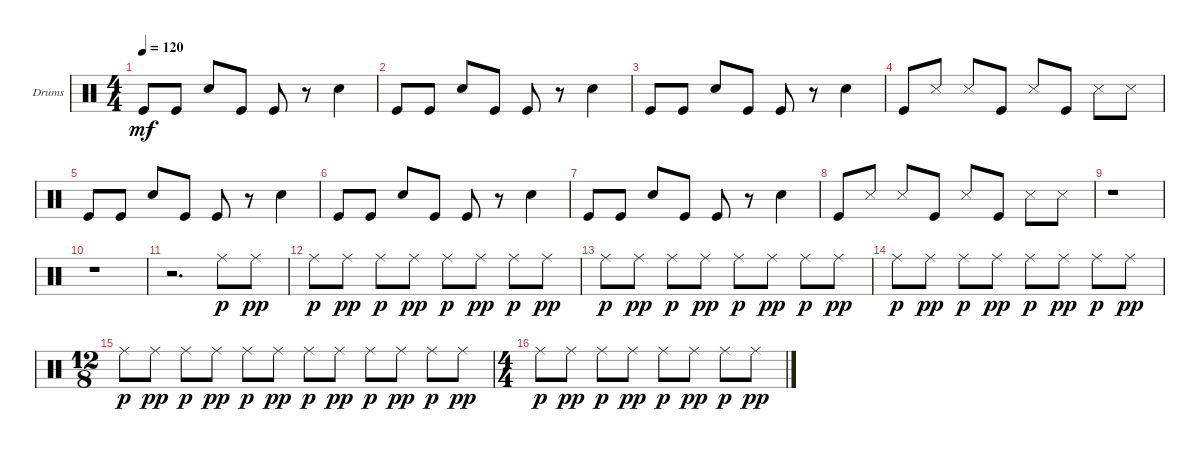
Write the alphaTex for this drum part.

\defaultSystemsLayout 4
\bracketExtendMode groupsimilarinstruments
\firstSystemTrackNameOrientation horizontal
\otherSystemsTrackNameOrientation horizontal
\track ("Drumkit" "Drums") {instrument percussion}
\staff {score}
\articulation defaults
\ts (4 4)
\tempo 120
\clef neutral
\ks c "Kick (hit)".8{dy mf} "Kick (hit)".8 "Snare (hit) 2".8 "Kick (hit)".8 "Kick (hit)".8
r.8 "Snare (hit) 2".4 |
"Kick (hit)".8 "Kick (hit)".8 "Snare (hit) 2".8 "Kick (hit)".8 "Kick (hit)".8 r.8 "Snare (hit) 2".4 |
"Kick (hit)".8 "Kick (hit)".8 "Snare (hit) 2".8 "Kick (hit)".8 "Kick (hit)".8 r.8 "Snare (hit) 2".4 |
"Kick (hit)".8 "Snare (side stick) 3".8 "Snare (side stick) 3".8 "Kick (hit)".8 "Snare (side stick) 3".8 "Kick (hit)".8 "Snare (side stick) 3".8 "Snare (side stick) 3".8 |
"Kick (hit)".8 "Kick (hit)".8 "Snare (hit) 2".8 "Kick (hit)".8 "Kick (hit)".8 r.8 "Snare (hit) 2".4 |
"Kick (hit)".8 "Kick (hit)".8 "Snare (hit) 2".8 "Kick (hit)".8 "Kick (hit)".8 r.8 "Snare (hit) 2".4 |
"Kick (hit)".8 "Kick (hit)".8 "Snare (hit) 2".8 "Kick (hit)".8 "Kick (hit)".8 r.8 "Snare (hit) 2".4 |
"Kick (hit)".8 "Snare (side stick) 3".8 "Snare (side stick) 3".8 "Kick (hit)".8 "Snare (side stick) 3".8 "Kick (hit)".8 "Snare (side stick) 3".8 "Snare (side stick) 3".8 |
r.1 |
r.1 |
r.2{d} "Ride (middle)".8{dy p} "Ride (middle)".8{dy pp} |
"Ride (middle)".8{dy p} "Ride (middle)".8{dy pp} "Ride (middle)".8{dy p} "Ride (middle)".8{dy pp} "Ride (middle)".8{dy p} "Ride (middle)".8{dy pp} "Ride (middle)".8{dy p} "Ride (middle)".8{dy pp} |
"Ride (middle)".8{dy p} "Ride (middle)".8{dy pp} "Ride (middle)".8{dy p} "Ride (middle)".8{dy pp} "Ride (middle)".8{dy p} "Ride (middle)".8{dy pp} "Ride (middle)".8{dy p} "Ride (middle)".8{dy pp} |
"Ride (middle)".8{dy p} "Ride (middle)".8{dy pp} "Ride (middle)".8{dy p} "Ride (middle)".8{dy pp} "Ride (middle)".8{dy p} "Ride (middle)".8{dy pp} "Ride (middle)".8{dy p} "Ride (middle)".8{dy pp} |
\ts (12 8)
\beaming (8 2 2 2 2 2 2)
"Ride (middle)".8{dy p} "Ride (middle)".8{dy pp} "Ride (middle)".8{dy p} "Ride (middle)".8{dy pp} "Ride (middle)".8{dy p} "Ride (middle)".8{dy pp} "Ride (middle)".8{dy p} "Ride (middle)".8{dy pp} "Ride (middle)".8{dy p} "Ride (middle)".8{dy pp} "Ride (middle)".8{dy p} "Ride (middle)".8{dy pp} |
\ts (4 4)
"Ride (middle)".8{dy p} "Ride (middle)".8{dy pp} "Ride (middle)".8{dy p} "Ride (middle)".8{dy pp} "Ride (middle)".8{dy p} "Ride (middle)".8{dy pp} "Ride (middle)".8{dy p} "Ride (middle)".8{dy pp}
